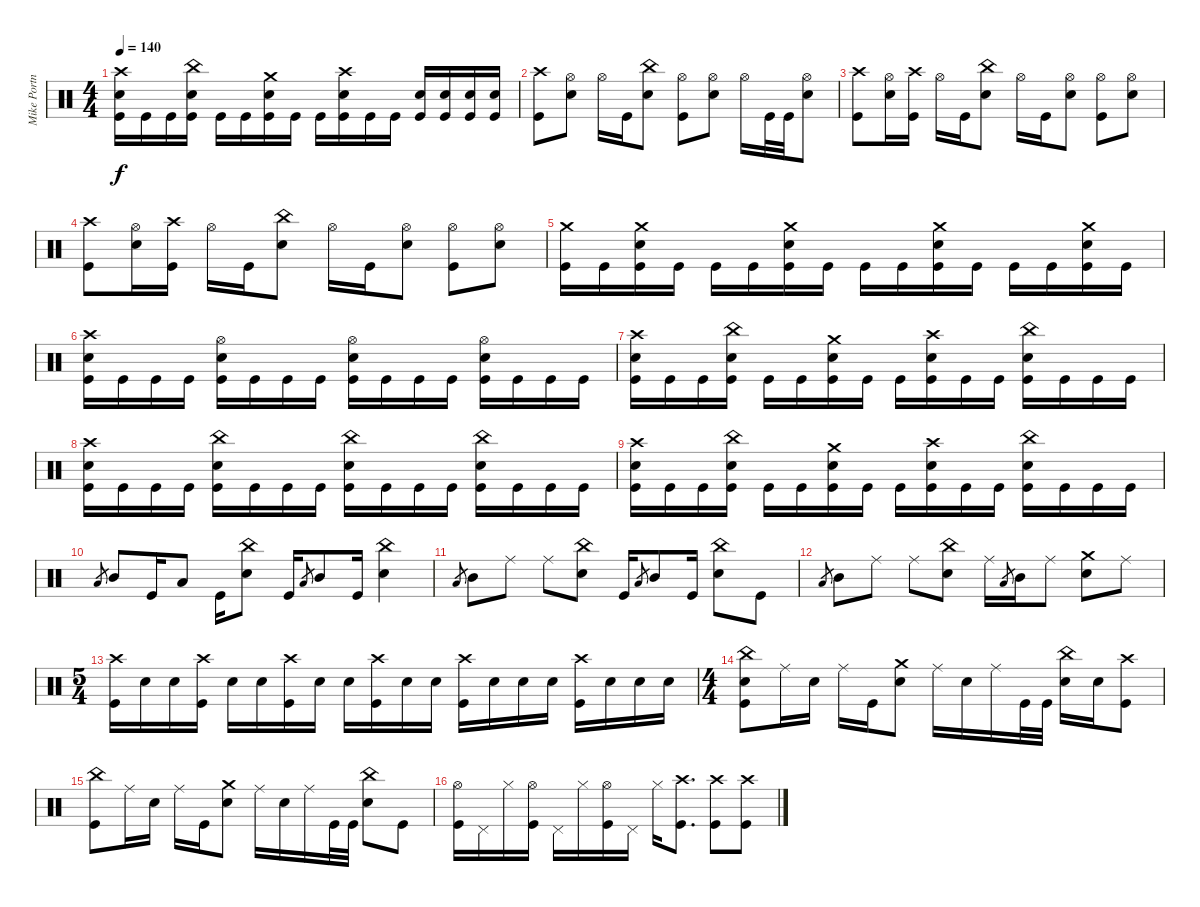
\track ("Mike Portnoy" "Mike Portn") {instrument percussion}
\staff {score}
\articulation defaults
\ts (4 4)
\tempo 140
\clef neutral
\ks c
("Crash high (hit)" "Electric Snare (hit)" "Kick (hit)").16{dy f} "Kick (hit)".16 "Kick (hit)".16 ("China (hit)" "Electric Snare (hit)" "Kick (hit)").16 "Kick (hit)".16 "Kick (hit)".16 ("Crash medium (hit)" "Electric Snare (hit)" "Kick (hit)").16 "Kick (hit)".16 "Kick (hit)".16 ("Crash high (hit)" "Electric Snare (hit)" "Kick (hit)").16 "Kick (hit)".16 "Kick (hit)".16 ("Electric Snare (hit)" "Kick (hit)").16 ("Electric Snare (hit)" "Kick (hit)").16 ("Electric Snare (hit)" "Kick (hit)").16 ("Electric Snare (hit)" "Kick (hit)").16 |
("Crash high (hit)" "Kick (hit)").8 ("Hi-Hat (open)" "Electric Snare (hit)").8 "Hi-Hat (open)".16 "Kick (hit)".16 ("China (hit)" "Electric Snare (hit)").8 ("Hi-Hat (open)" "Kick (hit)").8 ("Hi-Hat (open)" "Electric Snare (hit)").8 "Hi-Hat (open)".16 "Kick (hit)".32 "Kick (hit)".32 ("Hi-Hat (open)" "Electric Snare (hit)").8 |
("Crash high (hit)" "Kick (hit)").8 ("Hi-Hat (open)" "Electric Snare (hit)").16 ("Crash high (hit)" "Kick (hit)").16 "Hi-Hat (open)".16 "Kick (hit)".16 ("China (hit)" "Electric Snare (hit)").8 "Hi-Hat (open)".16 "Kick (hit)".16 ("Hi-Hat (open)" "Electric Snare (hit)").8 ("Hi-Hat (open)" "Kick (hit)").8 ("Hi-Hat (open)" "Electric Snare (hit)").8 |
("Crash high (hit)" "Kick (hit)").8 ("Hi-Hat (open)" "Electric Snare (hit)").16 ("Crash high (hit)" "Kick (hit)").16 "Hi-Hat (open)".16 "Kick (hit)".16 ("China (hit)" "Electric Snare (hit)").8 "Hi-Hat (open)".16 "Kick (hit)".16 ("Hi-Hat (open)" "Electric Snare (hit)").8 ("Hi-Hat (open)" "Kick (hit)").8 ("Hi-Hat (open)" "Electric Snare (hit)").8 |
("Crash medium (hit)" "Kick (hit)").16 "Kick (hit)".16 ("Crash medium (hit)" "Electric Snare (hit)" "Kick (hit)").16 "Kick (hit)".16 "Kick (hit)".16 "Kick (hit)".16 ("Crash medium (hit)" "Electric Snare (hit)" "Kick (hit)").16 "Kick (hit)".16 "Kick (hit)".16 "Kick (hit)".16 ("Crash medium (hit)" "Electric Snare (hit)" "Kick (hit)").16 "Kick (hit)".16 "Kick (hit)".16 "Kick (hit)".16 ("Crash medium (hit)" "Electric Snare (hit)" "Kick (hit)").16 "Kick (hit)".16 |
("Crash high (hit)" "Electric Snare (hit)" "Kick (hit)").16 "Kick (hit)".16 "Kick (hit)".16 "Kick (hit)".16 ("Hi-Hat (open)" "Electric Snare (hit)" "Kick (hit)").16 "Kick (hit)".16 "Kick (hit)".16 "Kick (hit)".16 ("Hi-Hat (open)" "Electric Snare (hit)" "Kick (hit)").16 "Kick (hit)".16 "Kick (hit)".16 "Kick (hit)".16 ("Hi-Hat (open)" "Electric Snare (hit)" "Kick (hit)").16 "Kick (hit)".16 "Kick (hit)".16 "Kick (hit)".16 |
("Crash high (hit)" "Electric Snare (hit)" "Kick (hit)").16 "Kick (hit)".16 "Kick (hit)".16 ("China (hit)" "Electric Snare (hit)" "Kick (hit)").16 "Kick (hit)".16 "Kick (hit)".16 ("Crash medium (hit)" "Electric Snare (hit)" "Kick (hit)").16 "Kick (hit)".16 "Kick (hit)".16 ("Crash high (hit)" "Electric Snare (hit)" "Kick (hit)").16 "Kick (hit)".16 "Kick (hit)".16 ("China (hit)" "Electric Snare (hit)" "Kick (hit)").16 "Kick (hit)".16 "Kick (hit)".16 "Kick (hit)".16 |
("Crash high (hit)" "Electric Snare (hit)" "Kick (hit)").16 "Kick (hit)".16 "Kick (hit)".16 "Kick (hit)".16 ("China (hit)" "Electric Snare (hit)" "Kick (hit)").16 "Kick (hit)".16 "Kick (hit)".16 "Kick (hit)".16 ("China (hit)" "Electric Snare (hit)" "Kick (hit)").16 "Kick (hit)".16 "Kick (hit)".16 "Kick (hit)".16 ("China (hit)" "Electric Snare (hit)" "Kick (hit)").16 "Kick (hit)".16 "Kick (hit)".16 "Kick (hit)".16 |
("Crash high (hit)" "Electric Snare (hit)" "Kick (hit)").16 "Kick (hit)".16 "Kick (hit)".16 ("China (hit)" "Electric Snare (hit)" "Kick (hit)").16 "Kick (hit)".16 "Kick (hit)".16 ("Crash medium (hit)" "Electric Snare (hit)" "Kick (hit)").16 "Kick (hit)".16 "Kick (hit)".16 ("Crash high (hit)" "Electric Snare (hit)" "Kick (hit)").16 "Kick (hit)".16 "Kick (hit)".16 ("China (hit)" "Electric Snare (hit)" "Kick (hit)").16 "Kick (hit)".16 "Kick (hit)".16 "Kick (hit)".16 |
"Low Tom (hit)".8{gr} "Mid Tom (hit)".8 "Kick (hit)".16 "Low Tom (hit)".8 "Kick (hit)".16 ("China (hit)" "Electric Snare (hit)").8 "Kick (hit)".16 "Low Tom (hit)".8{gr} "Mid Tom (hit)".8 "Kick (hit)".16 ("China (hit)" "Electric Snare (hit)").4 |
"Low Tom (hit)".8{gr} "Mid Tom (hit)".8 "Ride (middle)".8 "Ride (middle)".8 ("China (hit)" "Electric Snare (hit)").8 "Kick (hit)".16 "Low Tom (hit)".8{gr} "Mid Tom (hit)".8 "Kick (hit)".16 ("China (hit)" "Electric Snare (hit)").8 "Kick (hit)".8 |
"Low Tom (hit)".8{gr} "Mid Tom (hit)".8 "Ride (middle)".8 "Ride (middle)".8 ("China (hit)" "Electric Snare (hit)").8 "Ride (middle)".16 "Low Tom (hit)".8{gr} "Mid Tom (hit)".16 "Ride (middle)".8 ("Crash medium (hit)" "Electric Snare (hit)").8 "Ride (middle)".8 |
\ts (5 4)
("Crash high (hit)" "Kick (hit)").16 "Electric Snare (hit)".16 "Electric Snare (hit)".16 ("Crash high (hit)" "Kick (hit)").16 "Electric Snare (hit)".16 "Electric Snare (hit)".16 ("Crash high (hit)" "Kick (hit)").16 "Electric Snare (hit)".16 "Electric Snare (hit)".16 ("Crash high (hit)" "Kick (hit)").16 "Electric Snare (hit)".16 "Electric Snare (hit)".16 ("Crash high (hit)" "Kick (hit)").16 "Electric Snare (hit)".16 "Electric Snare (hit)".16 "Electric Snare (hit)".16 ("Crash high (hit)" "Kick (hit)").16 "Electric Snare (hit)".16 "Electric Snare (hit)".16 "Electric Snare (hit)".16 |
\ts (4 4)
("China (hit)" "Electric Snare (hit)" "Kick (hit)").8 "Ride (middle)".16 "Electric Snare (hit)".16 "Ride (middle)".16 "Kick (hit)".16 ("Crash medium (hit)" "Electric Snare (hit)").8 "Ride (middle)".16 "Electric Snare (hit)".16 "Ride (middle)".16 "Kick (hit)".32 "Kick (hit)".32 ("China (hit)" "Electric Snare (hit)").16 "Electric Snare (hit)".16 ("Crash high (hit)" "Kick (hit)").8 |
("China (hit)" "Kick (hit)").8 "Ride (middle)".16 "Electric Snare (hit)".16 "Ride (middle)".16 "Kick (hit)".16 ("Crash medium (hit)" "Electric Snare (hit)").8 "Ride (middle)".16 "Electric Snare (hit)".16 "Ride (middle)".16 "Kick (hit)".32 "Kick (hit)".32 ("China (hit)" "Electric Snare (hit)").8 "Kick (hit)".8 |
("Hi-Hat (open)" "Kick (hit)").16 "Pedal Hi-Hat (hit)".16 "Hi-Hat (closed)".16 ("Hi-Hat (open)" "Kick (hit)").16 "Pedal Hi-Hat (hit)".16 "Hi-Hat (closed)".16 ("Hi-Hat (open)" "Kick (hit)").16 "Pedal Hi-Hat (hit)".16 "Hi-Hat (closed)".16 ("Crash high (hit)" "Kick (hit)").8{d} ("Crash high (hit)" "Kick (hit)").8 ("Crash high (hit)" "Kick (hit)").8
